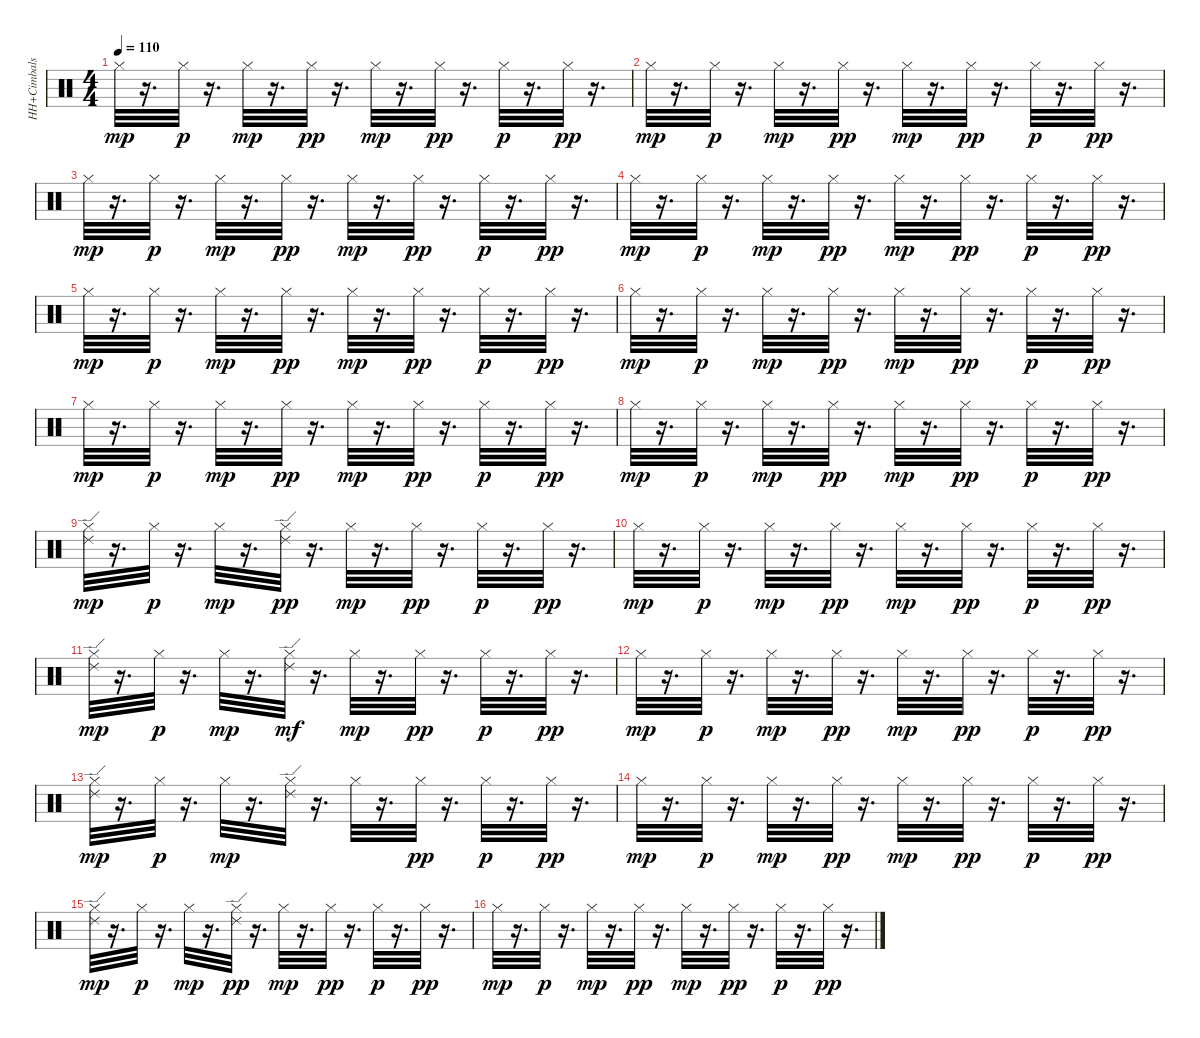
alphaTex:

\track ("HH+Cimbals" "HH+Cimbals") {instrument percussion}
\staff {score}
\articulation defaults
\ts (4 4)
\tempo 110
\clef neutral
\ks c "Hi-Hat (closed)".32{dy mp}
r.16{d} "Hi-Hat (closed)".32{dy p} r.16{d} "Hi-Hat (closed)".32{dy mp} r.16{d} "Hi-Hat (closed)".32{dy pp} r.16{d} "Hi-Hat (closed)".32{dy mp} r.16{d} "Hi-Hat (closed)".32{dy pp} r.16{d} "Hi-Hat (closed)".32{dy p} r.16{d} "Hi-Hat (closed)".32{dy pp} r.16{d} |
"Hi-Hat (closed)".32{dy mp} r.16{d} "Hi-Hat (closed)".32{dy p} r.16{d} "Hi-Hat (closed)".32{dy mp} r.16{d} "Hi-Hat (closed)".32{dy pp} r.16{d} "Hi-Hat (closed)".32{dy mp} r.16{d} "Hi-Hat (closed)".32{dy pp} r.16{d} "Hi-Hat (closed)".32{dy p} r.16{d} "Hi-Hat (closed)".32{dy pp} r.16{d} |
"Hi-Hat (closed)".32{dy mp} r.16{d} "Hi-Hat (closed)".32{dy p} r.16{d} "Hi-Hat (closed)".32{dy mp} r.16{d} "Hi-Hat (closed)".32{dy pp} r.16{d} "Hi-Hat (closed)".32{dy mp} r.16{d} "Hi-Hat (closed)".32{dy pp} r.16{d} "Hi-Hat (closed)".32{dy p} r.16{d} "Hi-Hat (closed)".32{dy pp} r.16{d} |
"Hi-Hat (closed)".32{dy mp} r.16{d} "Hi-Hat (closed)".32{dy p} r.16{d} "Hi-Hat (closed)".32{dy mp} r.16{d} "Hi-Hat (closed)".32{dy pp} r.16{d} "Hi-Hat (closed)".32{dy mp} r.16{d} "Hi-Hat (closed)".32{dy pp} r.16{d} "Hi-Hat (closed)".32{dy p} r.16{d} "Hi-Hat (closed)".32{dy pp} r.16{d} |
"Hi-Hat (closed)".32{dy mp} r.16{d} "Hi-Hat (closed)".32{dy p} r.16{d} "Hi-Hat (closed)".32{dy mp} r.16{d} "Hi-Hat (closed)".32{dy pp} r.16{d} "Hi-Hat (closed)".32{dy mp} r.16{d} "Hi-Hat (closed)".32{dy pp} r.16{d} "Hi-Hat (closed)".32{dy p} r.16{d} "Hi-Hat (closed)".32{dy pp} r.16{d} |
"Hi-Hat (closed)".32{dy mp} r.16{d} "Hi-Hat (closed)".32{dy p} r.16{d} "Hi-Hat (closed)".32{dy mp} r.16{d} "Hi-Hat (closed)".32{dy pp} r.16{d} "Hi-Hat (closed)".32{dy mp} r.16{d} "Hi-Hat (closed)".32{dy pp} r.16{d} "Hi-Hat (closed)".32{dy p} r.16{d} "Hi-Hat (closed)".32{dy pp} r.16{d} |
"Hi-Hat (closed)".32{dy mp} r.16{d} "Hi-Hat (closed)".32{dy p} r.16{d} "Hi-Hat (closed)".32{dy mp} r.16{d} "Hi-Hat (closed)".32{dy pp} r.16{d} "Hi-Hat (closed)".32{dy mp} r.16{d} "Hi-Hat (closed)".32{dy pp} r.16{d} "Hi-Hat (closed)".32{dy p} r.16{d} "Hi-Hat (closed)".32{dy pp} r.16{d} |
"Hi-Hat (closed)".32{dy mp} r.16{d} "Hi-Hat (closed)".32{dy p} r.16{d} "Hi-Hat (closed)".32{dy mp} r.16{d} "Hi-Hat (closed)".32{dy pp} r.16{d} "Hi-Hat (closed)".32{dy mp} r.16{d} "Hi-Hat (closed)".32{dy pp} r.16{d} "Hi-Hat (closed)".32{dy p} r.16{d} "Hi-Hat (closed)".32{dy pp} r.16{d} |
("Ride (edge) 2" "Hi-Hat (closed)").32{dy mp} r.16{d} "Hi-Hat (closed)".32{dy p} r.16{d} "Hi-Hat (closed)".32{dy mp} r.16{d} ("Ride (edge) 2" "Hi-Hat (closed)").32{dy pp} r.16{d} "Hi-Hat (closed)".32{dy mp} r.16{d} "Hi-Hat (closed)".32{dy pp} r.16{d} "Hi-Hat (closed)".32{dy p} r.16{d} "Hi-Hat (closed)".32{dy pp} r.16{d} |
"Hi-Hat (closed)".32{dy mp} r.16{d} "Hi-Hat (closed)".32{dy p} r.16{d} "Hi-Hat (closed)".32{dy mp} r.16{d} "Hi-Hat (closed)".32{dy pp} r.16{d} "Hi-Hat (closed)".32{dy mp} r.16{d} "Hi-Hat (closed)".32{dy pp} r.16{d} "Hi-Hat (closed)".32{dy p} r.16{d} "Hi-Hat (closed)".32{dy pp} r.16{d} |
("Ride (edge) 2" "Hi-Hat (closed)").32{dy mp} r.16{d} "Hi-Hat (closed)".32{dy p} r.16{d} "Hi-Hat (closed)".32{dy mp} r.16{d} ("Hi-Hat (closed)" "Ride (edge) 2").32{dy mf} r.16{d} "Hi-Hat (closed)".32{dy mp} r.16{d} "Hi-Hat (closed)".32{dy pp} r.16{d} "Hi-Hat (closed)".32{dy p} r.16{d} "Hi-Hat (closed)".32{dy pp} r.16{d} |
"Hi-Hat (closed)".32{dy mp} r.16{d} "Hi-Hat (closed)".32{dy p} r.16{d} "Hi-Hat (closed)".32{dy mp} r.16{d} "Hi-Hat (closed)".32{dy pp} r.16{d} "Hi-Hat (closed)".32{dy mp} r.16{d} "Hi-Hat (closed)".32{dy pp} r.16{d} "Hi-Hat (closed)".32{dy p} r.16{d} "Hi-Hat (closed)".32{dy pp} r.16{d} |
("Ride (edge) 2" "Hi-Hat (closed)").32{dy mp} r.16{d} "Hi-Hat (closed)".32{dy p} r.16{d} "Hi-Hat (closed)".32{dy mp} r.16{d} ("Hi-Hat (closed)" "Ride (edge) 2").32 r.16{d} "Hi-Hat (closed)".32 r.16{d} "Hi-Hat (closed)".32{dy pp} r.16{d} "Hi-Hat (closed)".32{dy p} r.16{d} "Hi-Hat (closed)".32{dy pp} r.16{d} |
"Hi-Hat (closed)".32{dy mp} r.16{d} "Hi-Hat (closed)".32{dy p} r.16{d} "Hi-Hat (closed)".32{dy mp} r.16{d} "Hi-Hat (closed)".32{dy pp} r.16{d} "Hi-Hat (closed)".32{dy mp} r.16{d} "Hi-Hat (closed)".32{dy pp} r.16{d} "Hi-Hat (closed)".32{dy p} r.16{d} "Hi-Hat (closed)".32{dy pp} r.16{d} |
("Ride (edge) 2" "Hi-Hat (closed)").32{dy mp} r.16{d} "Hi-Hat (closed)".32{dy p} r.16{d} "Hi-Hat (closed)".32{dy mp} r.16{d} ("Ride (edge) 2" "Hi-Hat (closed)").32{dy pp} r.16{d} "Hi-Hat (closed)".32{dy mp} r.16{d} "Hi-Hat (closed)".32{dy pp} r.16{d} "Hi-Hat (closed)".32{dy p} r.16{d} "Hi-Hat (closed)".32{dy pp} r.16{d} |
"Hi-Hat (closed)".32{dy mp} r.16{d} "Hi-Hat (closed)".32{dy p} r.16{d} "Hi-Hat (closed)".32{dy mp} r.16{d} "Hi-Hat (closed)".32{dy pp} r.16{d} "Hi-Hat (closed)".32{dy mp} r.16{d} "Hi-Hat (closed)".32{dy pp} r.16{d} "Hi-Hat (closed)".32{dy p} r.16{d} "Hi-Hat (closed)".32{dy pp} r.16{d}
